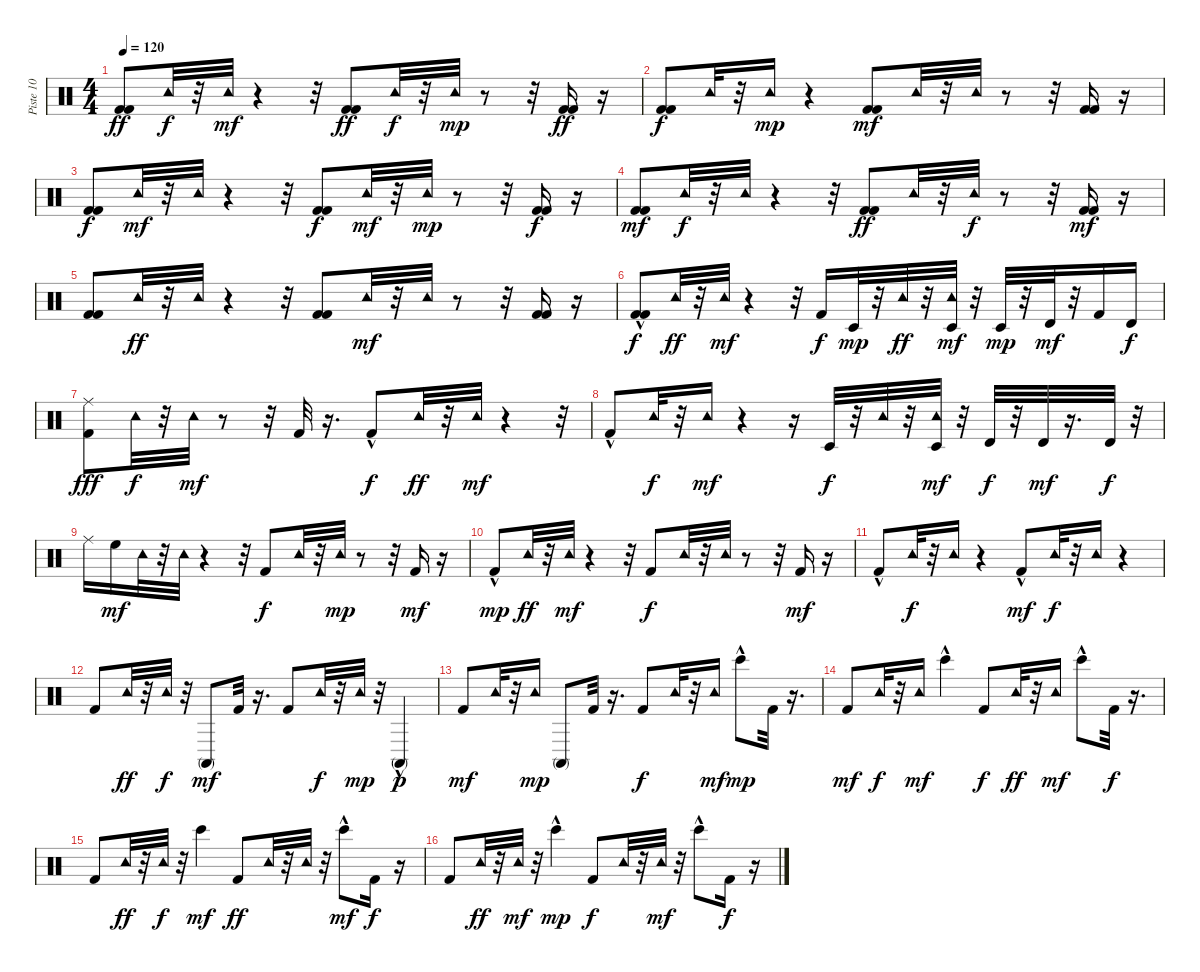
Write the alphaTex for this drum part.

\track ("Piste 10" "Piste 10") {instrument percussion}
\staff {score}
\articulation defaults
\ts (4 4)
\tempo 120
\clef neutral
\ks c
("Kick (hit) 2" "Kick (hit) 2").8{dy ff} "Tambourine (hit)".32{dy f} r.32 "Tambourine (hit)".32{dy mf} r.4 r.32 ("Kick (hit) 2" "Kick (hit) 2").8{dy ff} "Tambourine (hit)".32{dy f} r.32 "Tambourine (hit)".32{dy mp} r.8 r.32 ("Kick (hit) 2" "Kick (hit) 2").16{dy ff} r.16 |
("Kick (hit) 2" "Kick (hit) 2").8{dy f} "Tambourine (hit)".32 r.32 "Tambourine (hit)".16{dy mp} r.4 ("Kick (hit) 2" "Kick (hit) 2").8{dy mf} "Tambourine (hit)".32 r.32 "Tambourine (hit)".32 r.8 r.32 ("Kick (hit) 2" "Kick (hit) 2").16 r.16 |
("Kick (hit) 2" "Kick (hit) 2").8{dy f} "Tambourine (hit)".32{dy mf} r.32 "Tambourine (hit)".32 r.4 r.32 ("Kick (hit) 2" "Kick (hit) 2").8{dy f} "Tambourine (hit)".32{dy mf} r.32 "Tambourine (hit)".32{dy mp} r.8 r.32 ("Kick (hit) 2" "Kick (hit) 2").16{dy f} r.16 |
("Kick (hit) 2" "Kick (hit) 2").8{dy mf} "Tambourine (hit)".32{dy f} r.32 "Tambourine (hit)".32 r.4 r.32 ("Kick (hit) 2" "Kick (hit) 2").8{dy ff} "Tambourine (hit)".32 r.32 "Tambourine (hit)".32{dy f} r.8 r.32 ("Kick (hit) 2" "Kick (hit) 2").16{dy mf} r.16 |
("Kick (hit) 2" "Kick (hit) 2").8 "Tambourine (hit)".32{dy ff} r.32 "Tambourine (hit)".32 r.4 r.32 ("Kick (hit) 2" "Kick (hit) 2").8 "Tambourine (hit)".32{dy mf} r.32 "Tambourine (hit)".32 r.8 r.32 ("Kick (hit) 2" "Kick (hit) 2").16 r.16 |
("Kick (hit) 2"{hac} "Kick (hit) 2"{hac}).8{dy f} "Tambourine (hit)".32{dy ff} r.32 "Tambourine (hit)".32{dy mf} r.4 r.32 "Kick (hit) 2".16{dy f} "Timbale low (hit)".32{dy mp} r.32 "Tambourine (hit)".32{dy ff} r.32 ("Timbale low (hit)" "Tambourine (hit)").32{dy mf} r.32 "Timbale low (hit)".32{dy mp} r.32 "Timbale high (hit)".32{dy mf} r.32 "Kick (hit) 2".16 "Timbale high (hit)".16{dy f} |
("Ride (middle)" "Kick (hit) 2").8{dy fff} "Tambourine (hit)".32{dy f} r.32 "Tambourine (hit)".32{dy mf} r.8 r.32 "Kick (hit) 2".32 r.16{d} "Kick (hit) 2"{hac}.8{dy f} "Tambourine (hit)".32{dy ff} r.32 "Tambourine (hit)".32{dy mf} r.4 r.32 |
"Kick (hit) 2"{hac}.8 "Tambourine (hit)".32{dy f} r.32 "Tambourine (hit)".16{dy mf} r.4 r.16 "Timbale low (hit)".32{dy f} r.32 "Tambourine (hit)".32 r.32 ("Timbale low (hit)" "Tambourine (hit)").32{dy mf} r.32 "Timbale high (hit)".32{dy f} r.32 "Timbale high (hit)".32{dy mf} r.16{d} "Timbale high (hit)".32{dy f} r.32 |
"Ride (middle)".16 "High Floor Tom (hit)".16{dy mf} "Tambourine (hit)".32 r.32 "Tambourine (hit)".32 r.4 r.32 "Kick (hit) 2".8{dy f} "Tambourine (hit)".32 r.32 "Tambourine (hit)".32{dy mp} r.8 r.32 "Kick (hit) 2".16{dy mf} r.16 |
"Kick (hit) 2"{hac}.8{dy mp} "Tambourine (hit)".32{dy ff} r.32 "Tambourine (hit)".32{dy mf} r.4 r.32 "Kick (hit) 2".8{dy f} "Tambourine (hit)".32 r.32 "Tambourine (hit)".32 r.8 r.32 "Kick (hit) 2".16{dy mf} r.16 |
"Kick (hit) 2"{hac}.8 "Tambourine (hit)".32{dy f} r.32 "Tambourine (hit)".16 r.4 "Kick (hit) 2"{hac}.8{dy mf} "Tambourine (hit)".32{dy f} r.32 "Tambourine (hit)".16 r.4 |
"Kick (hit) 2".8 "Tambourine (hit)".32{dy ff} r.32 "Tambourine (hit)".32{dy f} r.32 "Conga high (mute)".8{dy mf} "Kick (hit) 2".32 r.16{d} "Kick (hit) 2".8 "Tambourine (hit)".32{dy f} r.32 "Tambourine (hit)".32{dy mp} r.32 "Conga high (mute)"{hac}.4{dy p} |
"Kick (hit) 2".8{dy mf} "Tambourine (hit)".32 r.32 "Tambourine (hit)".16{dy mp} "Conga high (mute)".8 "Kick (hit) 2".32 r.16{d} "Kick (hit) 2".8{dy f} "Tambourine (hit)".32 r.32 "Tambourine (hit)".16{dy mf} "Bongo High (hit)"{hac}.8{dy mp} "Kick (hit) 2".32 r.16{d} |
"Kick (hit) 2".8{dy mf} "Tambourine (hit)".32{dy f} r.32 "Tambourine (hit)".16{dy mf} "Bongo High (hit)"{hac}.4 "Kick (hit) 2".8{dy f} "Tambourine (hit)".32{dy ff} r.32 "Tambourine (hit)".16{dy mf} "Bongo High (hit)"{hac}.8 "Kick (hit) 2".32{dy f} r.16{d} |
"Kick (hit) 2".8 "Tambourine (hit)".32{dy ff} r.32 "Tambourine (hit)".32{dy f} r.32 "Bongo High (hit)".4{dy mf} "Kick (hit) 2".8{dy ff} "Tambourine (hit)".32 r.32 "Tambourine (hit)".32 r.32 "Bongo High (hit)"{hac}.8{dy mf} "Kick (hit) 2".16{dy f} r.16 |
"Kick (hit) 2".8 "Tambourine (hit)".32{dy ff} r.32 "Tambourine (hit)".32{dy mf} r.32 "Bongo High (hit)"{hac}.4{dy mp} "Kick (hit) 2".8{dy f} "Tambourine (hit)".32 r.32 "Tambourine (hit)".32{dy mf} r.32 "Bongo High (hit)"{hac}.8 "Kick (hit) 2".16{dy f} r.16
